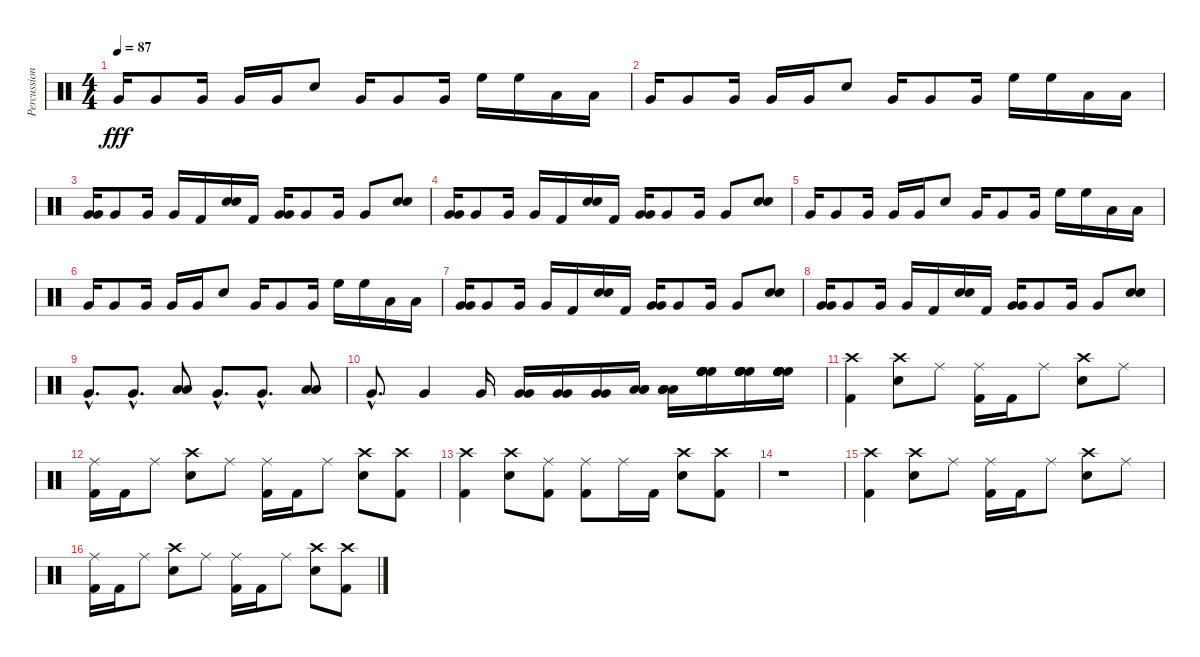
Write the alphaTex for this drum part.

\track ("Percussions" "Percussion") {instrument percussion}
\staff {score}
\articulation defaults
\ts (4 4)
\tempo 87
\clef neutral
\ks c "Very Low Tom (hit)".16{dy fff} "Very Low Tom (hit)".8 "Very Low Tom (hit)".16 "Very Low Tom (hit)".16 "Very Low Tom (hit)".16 "Electric Snare (hit)".8 "Very Low Tom (hit)".16 "Very Low Tom (hit)".8 "Very Low Tom (hit)".16 "High Floor Tom (hit)".16 "High Floor Tom (hit)".16 "Low Tom (hit)".16 "Low Tom (hit)".16
|
"Very Low Tom (hit)".16 "Very Low Tom (hit)".8 "Very Low Tom (hit)".16 "Very Low Tom (hit)".16 "Very Low Tom (hit)".16 "Electric Snare (hit)".8 "Very Low Tom (hit)".16 "Very Low Tom (hit)".8 "Very Low Tom (hit)".16 "High Floor Tom (hit)".16 "High Floor Tom (hit)".16 "Low Tom (hit)".16 "Low Tom (hit)".16 |
("Very Low Tom (hit)" "Very Low Tom (hit)").16 "Very Low Tom (hit)".8 "Very Low Tom (hit)".16 "Very Low Tom (hit)".16 "Kick (hit) 2".16 ("Electric Snare (hit)" "Electric Snare (hit)").16 "Kick (hit) 2".16 ("Very Low Tom (hit)" "Very Low Tom (hit)").16 "Very Low Tom (hit)".8 "Very Low Tom (hit)".16 "Very Low Tom (hit)".8 ("Electric Snare (hit)" "Electric Snare (hit)").8 |
("Very Low Tom (hit)" "Very Low Tom (hit)").16 "Very Low Tom (hit)".8 "Very Low Tom (hit)".16 "Very Low Tom (hit)".16 "Kick (hit) 2".16 ("Electric Snare (hit)" "Electric Snare (hit)").16 "Kick (hit) 2".16 ("Very Low Tom (hit)" "Very Low Tom (hit)").16 "Very Low Tom (hit)".8 "Very Low Tom (hit)".16 "Very Low Tom (hit)".8 ("Electric Snare (hit)" "Electric Snare (hit)").8 |
"Very Low Tom (hit)".16 "Very Low Tom (hit)".8 "Very Low Tom (hit)".16 "Very Low Tom (hit)".16 "Very Low Tom (hit)".16 "Electric Snare (hit)".8 "Very Low Tom (hit)".16 "Very Low Tom (hit)".8 "Very Low Tom (hit)".16 "High Floor Tom (hit)".16 "High Floor Tom (hit)".16 "Low Tom (hit)".16 "Low Tom (hit)".16 |
"Very Low Tom (hit)".16 "Very Low Tom (hit)".8 "Very Low Tom (hit)".16 "Very Low Tom (hit)".16 "Very Low Tom (hit)".16 "Electric Snare (hit)".8 "Very Low Tom (hit)".16 "Very Low Tom (hit)".8 "Very Low Tom (hit)".16 "High Floor Tom (hit)".16 "High Floor Tom (hit)".16 "Low Tom (hit)".16 "Low Tom (hit)".16 |
("Very Low Tom (hit)" "Very Low Tom (hit)").16 "Very Low Tom (hit)".8 "Very Low Tom (hit)".16 "Very Low Tom (hit)".16 "Kick (hit) 2".16 ("Electric Snare (hit)" "Electric Snare (hit)").16 "Kick (hit) 2".16 ("Very Low Tom (hit)" "Very Low Tom (hit)").16 "Very Low Tom (hit)".8 "Very Low Tom (hit)".16 "Very Low Tom (hit)".8 ("Electric Snare (hit)" "Electric Snare (hit)").8 |
("Very Low Tom (hit)" "Very Low Tom (hit)").16 "Very Low Tom (hit)".8 "Very Low Tom (hit)".16 "Very Low Tom (hit)".16 "Kick (hit) 2".16 ("Electric Snare (hit)" "Electric Snare (hit)").16 "Kick (hit) 2".16 ("Very Low Tom (hit)" "Very Low Tom (hit)").16 "Very Low Tom (hit)".8 "Very Low Tom (hit)".16 "Very Low Tom (hit)".8 ("Electric Snare (hit)" "Electric Snare (hit)").8 |
"Very Low Tom (hit)"{hac}.8{d} "Very Low Tom (hit)"{hac}.8{d} ("Low Tom (hit)" "Low Tom (hit)").8 "Very Low Tom (hit)"{hac}.8{d} "Very Low Tom (hit)"{hac}.8{d} ("Low Tom (hit)" "Low Tom (hit)").8 |
"Very Low Tom (hit)"{hac}.8{d} "Very Low Tom (hit)".4 "Very Low Tom (hit)".16 ("Very Low Tom (hit)" "Very Low Tom (hit)").16 ("Very Low Tom (hit)" "Very Low Tom (hit)").16 ("Very Low Tom (hit)" "Very Low Tom (hit)").16 ("Low Tom (hit)" "Low Tom (hit)" "Low Tom (hit)").16 ("Low Tom (hit)" "Low Tom (hit)" "Low Tom (hit)" "Low Tom (hit)").16 ("High Floor Tom (hit)" "High Floor Tom (hit)" "High Floor Tom (hit)" "High Floor Tom (hit)" "High Floor Tom (hit)").16 ("High Floor Tom (hit)" "High Floor Tom (hit)" "High Floor Tom (hit)" "High Floor Tom (hit)" "High Floor Tom (hit)" "High Floor Tom (hit)").16 ("High Floor Tom (hit)" "High Floor Tom (hit)" "High Floor Tom (hit)" "High Floor Tom (hit)" "High Floor Tom (hit)" "High Floor Tom (hit)").16 |
("Crash high (hit)" "Kick (hit) 2").4 ("Electric Snare (hit)" "Crash high (hit)").8 "Ride (middle)".8 ("Ride (middle)" "Kick (hit) 2").16 "Kick (hit) 2".16 "Ride (middle)".8 ("Electric Snare (hit)" "Crash high (hit)").8 "Ride (middle)".8 |
("Ride (middle)" "Kick (hit) 2").16 "Kick (hit) 2".16 "Ride (middle)".8 ("Electric Snare (hit)" "Crash high (hit)").8 "Ride (middle)".8 ("Ride (middle)" "Kick (hit) 2").16 "Kick (hit) 2".16 "Ride (middle)".8 ("Electric Snare (hit)" "Crash high (hit)").8 ("Crash high (hit)" "Kick (hit) 2").8 |
("Crash high (hit)" "Kick (hit) 2").4 ("Electric Snare (hit)" "Crash high (hit)").8 ("Ride (middle)" "Kick (hit) 2").8 ("Ride (middle)" "Kick (hit) 2").8 "Ride (middle)".16 "Kick (hit) 2".16 ("Electric Snare (hit)" "Crash high (hit)").8 ("Crash high (hit)" "Kick (hit) 2").8 |
r.1 |
("Crash high (hit)" "Kick (hit) 2").4 ("Electric Snare (hit)" "Crash high (hit)").8 "Ride (middle)".8 ("Ride (middle)" "Kick (hit) 2").16 "Kick (hit) 2".16 "Ride (middle)".8 ("Electric Snare (hit)" "Crash high (hit)").8 "Ride (middle)".8 |
("Ride (middle)" "Kick (hit) 2").16 "Kick (hit) 2".16 "Ride (middle)".8 ("Electric Snare (hit)" "Crash high (hit)").8 "Ride (middle)".8 ("Ride (middle)" "Kick (hit) 2").16 "Kick (hit) 2".16 "Ride (middle)".8 ("Electric Snare (hit)" "Crash high (hit)").8 ("Crash high (hit)" "Kick (hit) 2").8
